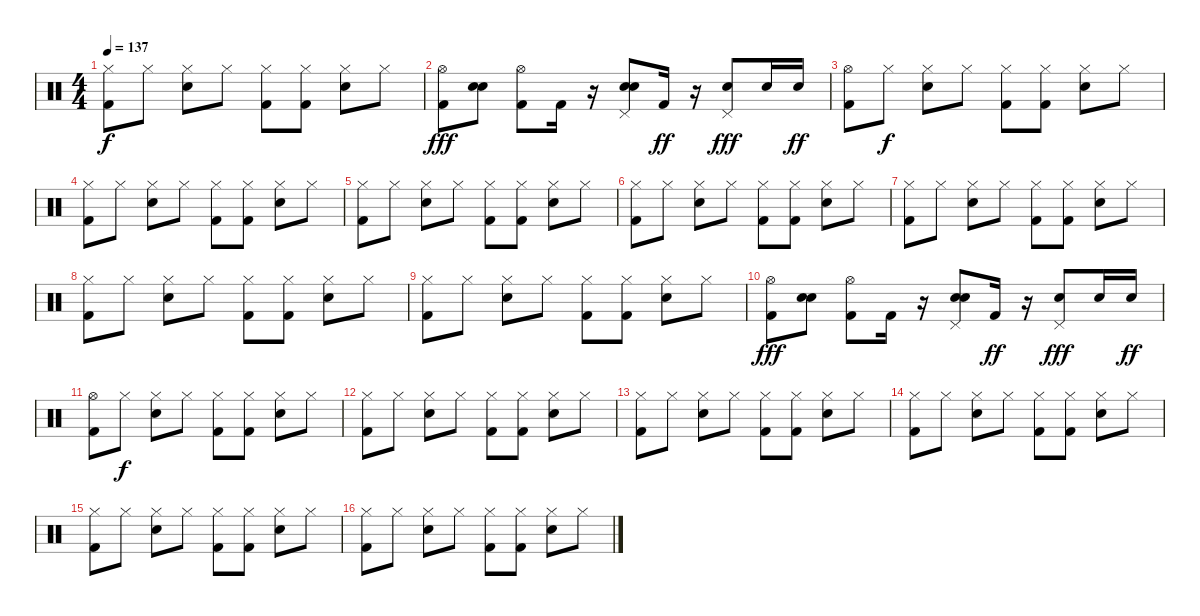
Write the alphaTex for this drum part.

\track "" {instrument percussion}
\staff {score}
\articulation defaults
\ts (4 4)
\tempo 137
\clef neutral
\ks c
("Kick (hit) 2" "Hi-Hat (closed)").8{dy f} "Hi-Hat (closed)".8 ("Hi-Hat (closed)" "Electric Snare (hit)").8 "Hi-Hat (closed)".8 ("Kick (hit) 2" "Hi-Hat (closed)").8 ("Kick (hit) 2" "Hi-Hat (closed)").8 ("Electric Snare (hit)" "Hi-Hat (closed)").8 "Hi-Hat (closed)".8 |
("Hi-Hat (open)" "Kick (hit) 2").8{dy fff} ("Electric Snare (hit)" "Electric Snare (hit)").8 ("Hi-Hat (open)" "Kick (hit) 2").8 "Kick (hit) 2".16 r.16 ("Electric Snare (hit)" "Pedal Hi-Hat (hit)" "Electric Snare (hit)").8 "Kick (hit) 2".16{dy ff} r.16 ("Pedal Hi-Hat (hit)" "Electric Snare (hit)").8{dy fff} "Electric Snare (hit)".16 "Electric Snare (hit)".16{dy ff} |
("Kick (hit) 2" "Hi-Hat (open)").8 "Hi-Hat (closed)".8{dy f} ("Hi-Hat (closed)" "Electric Snare (hit)").8 "Hi-Hat (closed)".8 ("Kick (hit) 2" "Hi-Hat (closed)").8 ("Kick (hit) 2" "Hi-Hat (closed)").8 ("Electric Snare (hit)" "Hi-Hat (closed)").8 "Hi-Hat (closed)".8 |
("Kick (hit) 2" "Hi-Hat (closed)").8 "Hi-Hat (closed)".8 ("Hi-Hat (closed)" "Electric Snare (hit)").8 "Hi-Hat (closed)".8 ("Kick (hit) 2" "Hi-Hat (closed)").8 ("Kick (hit) 2" "Hi-Hat (closed)").8 ("Electric Snare (hit)" "Hi-Hat (closed)").8 "Hi-Hat (closed)".8 |
("Kick (hit) 2" "Hi-Hat (closed)").8 "Hi-Hat (closed)".8 ("Hi-Hat (closed)" "Electric Snare (hit)").8 "Hi-Hat (closed)".8 ("Kick (hit) 2" "Hi-Hat (closed)").8 ("Kick (hit) 2" "Hi-Hat (closed)").8 ("Electric Snare (hit)" "Hi-Hat (closed)").8 "Hi-Hat (closed)".8 |
("Kick (hit) 2" "Hi-Hat (closed)").8 "Hi-Hat (closed)".8 ("Hi-Hat (closed)" "Electric Snare (hit)").8 "Hi-Hat (closed)".8 ("Kick (hit) 2" "Hi-Hat (closed)").8 ("Kick (hit) 2" "Hi-Hat (closed)").8 ("Electric Snare (hit)" "Hi-Hat (closed)").8 "Hi-Hat (closed)".8 |
("Kick (hit) 2" "Hi-Hat (closed)").8 "Hi-Hat (closed)".8 ("Hi-Hat (closed)" "Electric Snare (hit)").8 "Hi-Hat (closed)".8 ("Kick (hit) 2" "Hi-Hat (closed)").8 ("Kick (hit) 2" "Hi-Hat (closed)").8 ("Electric Snare (hit)" "Hi-Hat (closed)").8 "Hi-Hat (closed)".8 |
("Kick (hit) 2" "Hi-Hat (closed)").8 "Hi-Hat (closed)".8 ("Hi-Hat (closed)" "Electric Snare (hit)").8 "Hi-Hat (closed)".8 ("Kick (hit) 2" "Hi-Hat (closed)").8 ("Kick (hit) 2" "Hi-Hat (closed)").8 ("Electric Snare (hit)" "Hi-Hat (closed)").8 "Hi-Hat (closed)".8 |
("Kick (hit) 2" "Hi-Hat (closed)").8 "Hi-Hat (closed)".8 ("Hi-Hat (closed)" "Electric Snare (hit)").8 "Hi-Hat (closed)".8 ("Kick (hit) 2" "Hi-Hat (closed)").8 ("Kick (hit) 2" "Hi-Hat (closed)").8 ("Electric Snare (hit)" "Hi-Hat (closed)").8 "Hi-Hat (closed)".8 |
("Hi-Hat (open)" "Kick (hit) 2").8{dy fff} ("Electric Snare (hit)" "Electric Snare (hit)").8 ("Hi-Hat (open)" "Kick (hit) 2").8 "Kick (hit) 2".16 r.16 ("Electric Snare (hit)" "Pedal Hi-Hat (hit)" "Electric Snare (hit)").8 "Kick (hit) 2".16{dy ff} r.16 ("Pedal Hi-Hat (hit)" "Electric Snare (hit)").8{dy fff} "Electric Snare (hit)".16 "Electric Snare (hit)".16{dy ff} |
("Kick (hit) 2" "Hi-Hat (open)").8 "Hi-Hat (closed)".8{dy f} ("Hi-Hat (closed)" "Electric Snare (hit)").8 "Hi-Hat (closed)".8 ("Kick (hit) 2" "Hi-Hat (closed)").8 ("Kick (hit) 2" "Hi-Hat (closed)").8 ("Electric Snare (hit)" "Hi-Hat (closed)").8 "Hi-Hat (closed)".8 |
("Kick (hit) 2" "Hi-Hat (closed)").8 "Hi-Hat (closed)".8 ("Hi-Hat (closed)" "Electric Snare (hit)").8 "Hi-Hat (closed)".8 ("Kick (hit) 2" "Hi-Hat (closed)").8 ("Kick (hit) 2" "Hi-Hat (closed)").8 ("Electric Snare (hit)" "Hi-Hat (closed)").8 "Hi-Hat (closed)".8 |
("Kick (hit) 2" "Hi-Hat (closed)").8 "Hi-Hat (closed)".8 ("Hi-Hat (closed)" "Electric Snare (hit)").8 "Hi-Hat (closed)".8 ("Kick (hit) 2" "Hi-Hat (closed)").8 ("Kick (hit) 2" "Hi-Hat (closed)").8 ("Electric Snare (hit)" "Hi-Hat (closed)").8 "Hi-Hat (closed)".8 |
("Kick (hit) 2" "Hi-Hat (closed)").8 "Hi-Hat (closed)".8 ("Hi-Hat (closed)" "Electric Snare (hit)").8 "Hi-Hat (closed)".8 ("Kick (hit) 2" "Hi-Hat (closed)").8 ("Kick (hit) 2" "Hi-Hat (closed)").8 ("Electric Snare (hit)" "Hi-Hat (closed)").8 "Hi-Hat (closed)".8 |
("Kick (hit) 2" "Hi-Hat (closed)").8 "Hi-Hat (closed)".8 ("Hi-Hat (closed)" "Electric Snare (hit)").8 "Hi-Hat (closed)".8 ("Kick (hit) 2" "Hi-Hat (closed)").8 ("Kick (hit) 2" "Hi-Hat (closed)").8 ("Electric Snare (hit)" "Hi-Hat (closed)").8 "Hi-Hat (closed)".8 |
("Kick (hit) 2" "Hi-Hat (closed)").8 "Hi-Hat (closed)".8 ("Hi-Hat (closed)" "Electric Snare (hit)").8 "Hi-Hat (closed)".8 ("Kick (hit) 2" "Hi-Hat (closed)").8 ("Kick (hit) 2" "Hi-Hat (closed)").8 ("Electric Snare (hit)" "Hi-Hat (closed)").8 "Hi-Hat (closed)".8
